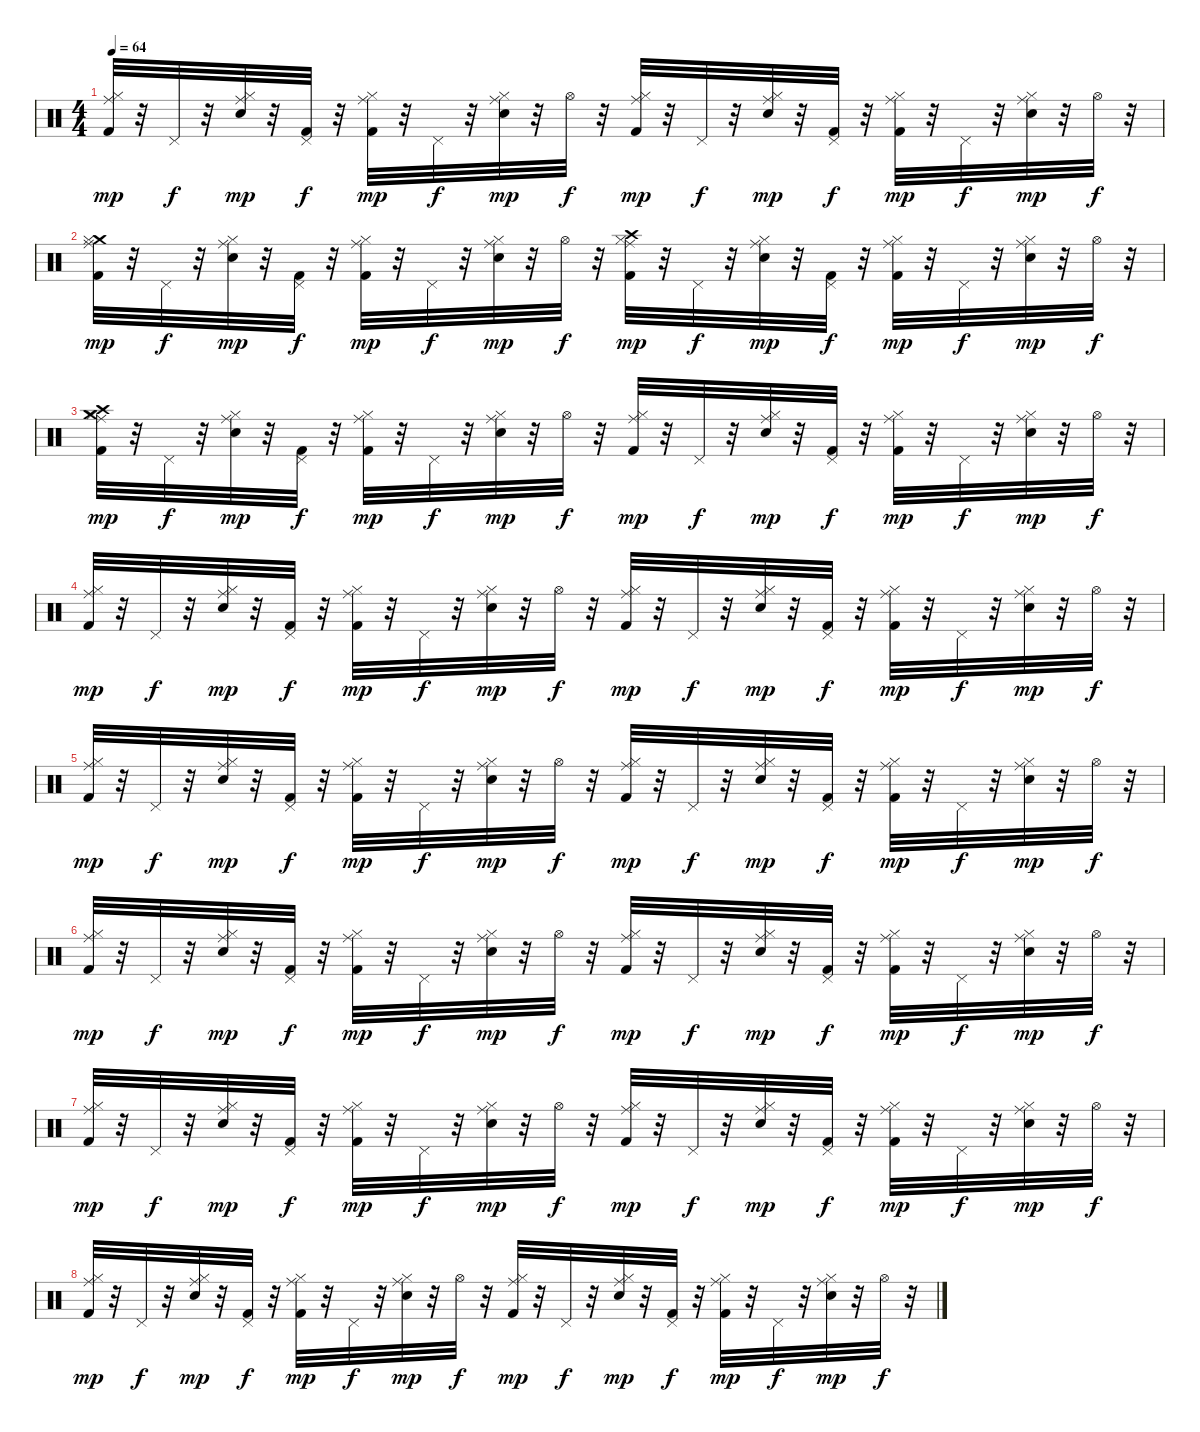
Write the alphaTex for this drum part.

\track "" {instrument percussion}
\staff {score}
\articulation defaults
\ts (4 4)
\tempo 64
\clef neutral
\ks c
("Ride (middle)" "Hi-Hat (closed)" "Kick (hit) 2").32{dy mp} r.32 "Pedal Hi-Hat (hit)".32{dy f} r.32 ("Ride (middle)" "Hi-Hat (closed)" "Snare (hit) 2").32{dy mp} r.32 ("Pedal Hi-Hat (hit)" "Kick (hit) 2").32{dy f} r.32 ("Ride (middle)" "Hi-Hat (closed)" "Kick (hit) 2").32{dy mp} r.32 "Pedal Hi-Hat (hit)".32{dy f} r.32 ("Snare (hit) 2" "Ride (middle)" "Hi-Hat (closed)").32{dy mp} r.32 "Hi-Hat (open)".32{dy f} r.32 ("Kick (hit) 2" "Hi-Hat (closed)" "Ride (middle)").32{dy mp} r.32 "Pedal Hi-Hat (hit)".32{dy f} r.32 ("Snare (hit) 2" "Hi-Hat (closed)" "Ride (middle)").32{dy mp} r.32 ("Kick (hit) 2" "Pedal Hi-Hat (hit)").32{dy f} r.32 ("Kick (hit) 2" "Hi-Hat (closed)" "Ride (middle)").32{dy mp} r.32 "Pedal Hi-Hat (hit)".32{dy f} r.32 ("Snare (hit) 2" "Hi-Hat (closed)" "Ride (middle)").32{dy mp} r.32 "Hi-Hat (open)".32{dy f} r.32 |
("Crash medium (hit)" "Ride (middle)" "Hi-Hat (closed)" "Kick (hit) 2").32{dy mp} r.32 "Pedal Hi-Hat (hit)".32{dy f} r.32 ("Ride (middle)" "Hi-Hat (closed)" "Snare (hit) 2").32{dy mp} r.32 ("Pedal Hi-Hat (hit)" "Kick (hit) 2").32{dy f} r.32 ("Ride (middle)" "Hi-Hat (closed)" "Kick (hit) 2").32{dy mp} r.32 "Pedal Hi-Hat (hit)".32{dy f} r.32 ("Snare (hit) 2" "Ride (middle)" "Hi-Hat (closed)").32{dy mp} r.32 "Hi-Hat (open)".32{dy f} r.32 ("Crash high (hit)" "Kick (hit) 2" "Hi-Hat (closed)" "Ride (middle)").32{dy mp} r.32 "Pedal Hi-Hat (hit)".32{dy f} r.32 ("Snare (hit) 2" "Hi-Hat (closed)" "Ride (middle)").32{dy mp} r.32 ("Kick (hit) 2" "Pedal Hi-Hat (hit)").32{dy f} r.32 ("Kick (hit) 2" "Hi-Hat (closed)" "Ride (middle)").32{dy mp} r.32 "Pedal Hi-Hat (hit)".32{dy f} r.32 ("Snare (hit) 2" "Hi-Hat (closed)" "Ride (middle)").32{dy mp} r.32 "Hi-Hat (open)".32{dy f} r.32 |
("Crash medium (hit)" "Crash high (hit)" "Ride (middle)" "Hi-Hat (closed)" "Kick (hit) 2").32{dy mp} r.32 "Pedal Hi-Hat (hit)".32{dy f} r.32 ("Ride (middle)" "Hi-Hat (closed)" "Snare (hit) 2").32{dy mp} r.32 ("Pedal Hi-Hat (hit)" "Kick (hit) 2").32{dy f} r.32 ("Ride (middle)" "Hi-Hat (closed)" "Kick (hit) 2").32{dy mp} r.32 "Pedal Hi-Hat (hit)".32{dy f} r.32 ("Snare (hit) 2" "Ride (middle)" "Hi-Hat (closed)").32{dy mp} r.32 "Hi-Hat (open)".32{dy f} r.32 ("Kick (hit) 2" "Hi-Hat (closed)" "Ride (middle)").32{dy mp} r.32 "Pedal Hi-Hat (hit)".32{dy f} r.32 ("Snare (hit) 2" "Hi-Hat (closed)" "Ride (middle)").32{dy mp} r.32 ("Kick (hit) 2" "Pedal Hi-Hat (hit)").32{dy f} r.32 ("Kick (hit) 2" "Hi-Hat (closed)" "Ride (middle)").32{dy mp} r.32 "Pedal Hi-Hat (hit)".32{dy f} r.32 ("Snare (hit) 2" "Hi-Hat (closed)" "Ride (middle)").32{dy mp} r.32 "Hi-Hat (open)".32{dy f} r.32 |
("Ride (middle)" "Hi-Hat (closed)" "Kick (hit) 2").32{dy mp} r.32 "Pedal Hi-Hat (hit)".32{dy f} r.32 ("Ride (middle)" "Hi-Hat (closed)" "Snare (hit) 2").32{dy mp} r.32 ("Pedal Hi-Hat (hit)" "Kick (hit) 2").32{dy f} r.32 ("Ride (middle)" "Hi-Hat (closed)" "Kick (hit) 2").32{dy mp} r.32 "Pedal Hi-Hat (hit)".32{dy f} r.32 ("Snare (hit) 2" "Ride (middle)" "Hi-Hat (closed)").32{dy mp} r.32 "Hi-Hat (open)".32{dy f} r.32 ("Kick (hit) 2" "Hi-Hat (closed)" "Ride (middle)").32{dy mp} r.32 "Pedal Hi-Hat (hit)".32{dy f} r.32 ("Snare (hit) 2" "Hi-Hat (closed)" "Ride (middle)").32{dy mp} r.32 ("Kick (hit) 2" "Pedal Hi-Hat (hit)").32{dy f} r.32 ("Kick (hit) 2" "Hi-Hat (closed)" "Ride (middle)").32{dy mp} r.32 "Pedal Hi-Hat (hit)".32{dy f} r.32 ("Snare (hit) 2" "Hi-Hat (closed)" "Ride (middle)").32{dy mp} r.32 "Hi-Hat (open)".32{dy f} r.32 |
("Ride (middle)" "Hi-Hat (closed)" "Kick (hit) 2").32{dy mp} r.32 "Pedal Hi-Hat (hit)".32{dy f} r.32 ("Ride (middle)" "Hi-Hat (closed)" "Snare (hit) 2").32{dy mp} r.32 ("Pedal Hi-Hat (hit)" "Kick (hit) 2").32{dy f} r.32 ("Ride (middle)" "Hi-Hat (closed)" "Kick (hit) 2").32{dy mp} r.32 "Pedal Hi-Hat (hit)".32{dy f} r.32 ("Snare (hit) 2" "Ride (middle)" "Hi-Hat (closed)").32{dy mp} r.32 "Hi-Hat (open)".32{dy f} r.32 ("Kick (hit) 2" "Hi-Hat (closed)" "Ride (middle)").32{dy mp} r.32 "Pedal Hi-Hat (hit)".32{dy f} r.32 ("Snare (hit) 2" "Hi-Hat (closed)" "Ride (middle)").32{dy mp} r.32 ("Kick (hit) 2" "Pedal Hi-Hat (hit)").32{dy f} r.32 ("Kick (hit) 2" "Hi-Hat (closed)" "Ride (middle)").32{dy mp} r.32 "Pedal Hi-Hat (hit)".32{dy f} r.32 ("Snare (hit) 2" "Hi-Hat (closed)" "Ride (middle)").32{dy mp} r.32 "Hi-Hat (open)".32{dy f} r.32 |
("Ride (middle)" "Hi-Hat (closed)" "Kick (hit) 2").32{dy mp} r.32 "Pedal Hi-Hat (hit)".32{dy f} r.32 ("Ride (middle)" "Hi-Hat (closed)" "Snare (hit) 2").32{dy mp} r.32 ("Pedal Hi-Hat (hit)" "Kick (hit) 2").32{dy f} r.32 ("Ride (middle)" "Hi-Hat (closed)" "Kick (hit) 2").32{dy mp} r.32 "Pedal Hi-Hat (hit)".32{dy f} r.32 ("Snare (hit) 2" "Ride (middle)" "Hi-Hat (closed)").32{dy mp} r.32 "Hi-Hat (open)".32{dy f} r.32 ("Kick (hit) 2" "Hi-Hat (closed)" "Ride (middle)").32{dy mp} r.32 "Pedal Hi-Hat (hit)".32{dy f} r.32 ("Snare (hit) 2" "Hi-Hat (closed)" "Ride (middle)").32{dy mp} r.32 ("Kick (hit) 2" "Pedal Hi-Hat (hit)").32{dy f} r.32 ("Kick (hit) 2" "Hi-Hat (closed)" "Ride (middle)").32{dy mp} r.32 "Pedal Hi-Hat (hit)".32{dy f} r.32 ("Snare (hit) 2" "Hi-Hat (closed)" "Ride (middle)").32{dy mp} r.32 "Hi-Hat (open)".32{dy f} r.32 |
("Ride (middle)" "Hi-Hat (closed)" "Kick (hit) 2").32{dy mp} r.32 "Pedal Hi-Hat (hit)".32{dy f} r.32 ("Ride (middle)" "Hi-Hat (closed)" "Snare (hit) 2").32{dy mp} r.32 ("Pedal Hi-Hat (hit)" "Kick (hit) 2").32{dy f} r.32 ("Ride (middle)" "Hi-Hat (closed)" "Kick (hit) 2").32{dy mp} r.32 "Pedal Hi-Hat (hit)".32{dy f} r.32 ("Snare (hit) 2" "Ride (middle)" "Hi-Hat (closed)").32{dy mp} r.32 "Hi-Hat (open)".32{dy f} r.32 ("Kick (hit) 2" "Hi-Hat (closed)" "Ride (middle)").32{dy mp} r.32 "Pedal Hi-Hat (hit)".32{dy f} r.32 ("Snare (hit) 2" "Hi-Hat (closed)" "Ride (middle)").32{dy mp} r.32 ("Kick (hit) 2" "Pedal Hi-Hat (hit)").32{dy f} r.32 ("Kick (hit) 2" "Hi-Hat (closed)" "Ride (middle)").32{dy mp} r.32 "Pedal Hi-Hat (hit)".32{dy f} r.32 ("Snare (hit) 2" "Hi-Hat (closed)" "Ride (middle)").32{dy mp} r.32 "Hi-Hat (open)".32{dy f} r.32 |
("Ride (middle)" "Hi-Hat (closed)" "Kick (hit) 2").32{dy mp} r.32 "Pedal Hi-Hat (hit)".32{dy f} r.32 ("Ride (middle)" "Hi-Hat (closed)" "Snare (hit) 2").32{dy mp} r.32 ("Pedal Hi-Hat (hit)" "Kick (hit) 2").32{dy f} r.32 ("Ride (middle)" "Hi-Hat (closed)" "Kick (hit) 2").32{dy mp} r.32 "Pedal Hi-Hat (hit)".32{dy f} r.32 ("Snare (hit) 2" "Ride (middle)" "Hi-Hat (closed)").32{dy mp} r.32 "Hi-Hat (open)".32{dy f} r.32 ("Kick (hit) 2" "Hi-Hat (closed)" "Ride (middle)").32{dy mp} r.32 "Pedal Hi-Hat (hit)".32{dy f} r.32 ("Snare (hit) 2" "Hi-Hat (closed)" "Ride (middle)").32{dy mp} r.32 ("Kick (hit) 2" "Pedal Hi-Hat (hit)").32{dy f} r.32 ("Kick (hit) 2" "Hi-Hat (closed)" "Ride (middle)").32{dy mp} r.32 "Pedal Hi-Hat (hit)".32{dy f} r.32 ("Snare (hit) 2" "Hi-Hat (closed)" "Ride (middle)").32{dy mp} r.32 "Hi-Hat (open)".32{dy f} r.32
